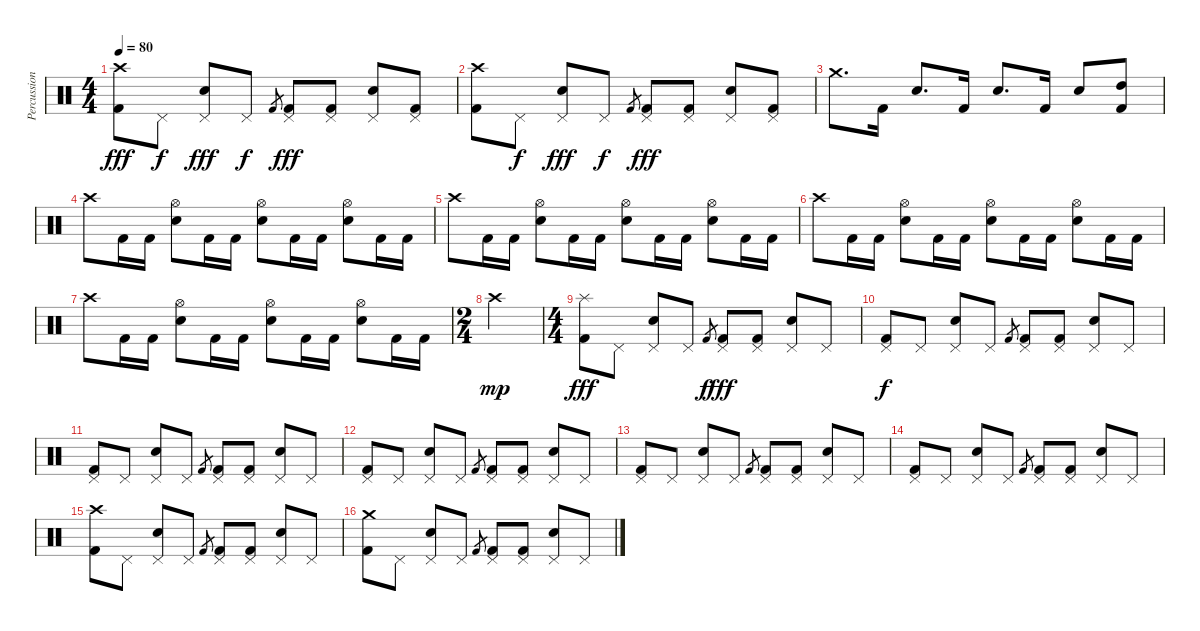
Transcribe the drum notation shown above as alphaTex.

\track ("Percussion" "Percussion") {instrument percussion}
\staff {score}
\articulation defaults
\ts (4 4)
\tempo 80
\clef neutral
\ks c
("Crash high (hit)" "Kick (hit) 2").8{dy fff} "Pedal Hi-Hat (hit)".8{dy f} ("Pedal Hi-Hat (hit)" "Electric Snare (hit)").8{dy fff} "Pedal Hi-Hat (hit)".8{dy f} "Kick (hit) 2".8{gr} ("Pedal Hi-Hat (hit)" "Kick (hit) 2").8{dy fff} ("Pedal Hi-Hat (hit)" "Kick (hit) 2").8 ("Pedal Hi-Hat (hit)" "Electric Snare (hit)").8 ("Pedal Hi-Hat (hit)" "Kick (hit) 2").8 |
("Crash high (hit)" "Kick (hit) 2").8 "Pedal Hi-Hat (hit)".8{dy f} ("Pedal Hi-Hat (hit)" "Electric Snare (hit)").8{dy fff} "Pedal Hi-Hat (hit)".8{dy f} "Kick (hit) 2".8{gr} ("Pedal Hi-Hat (hit)" "Kick (hit) 2").8{dy fff} ("Pedal Hi-Hat (hit)" "Kick (hit) 2").8 ("Pedal Hi-Hat (hit)" "Electric Snare (hit)").8 ("Pedal Hi-Hat (hit)" "Kick (hit) 2").8 |
"Crash medium (hit)".8{d} "Kick (hit) 2".16 "Electric Snare (hit)".8{d} "Kick (hit) 2".16 "Electric Snare (hit)".8{d} "Kick (hit) 2".16 "Electric Snare (hit)".8 ("High Tom (hit)" "Kick (hit) 2").8 |
"Crash high (hit)".8 "Kick (hit) 2".16 "Kick (hit) 2".16 ("Hi-Hat (open)" "Electric Snare (hit)").8 "Kick (hit) 2".16 "Kick (hit) 2".16 ("Hi-Hat (open)" "Electric Snare (hit)").8 "Kick (hit) 2".16 "Kick (hit) 2".16 ("Hi-Hat (open)" "Electric Snare (hit)").8 "Kick (hit) 2".16 "Kick (hit) 2".16 |
"Crash high (hit)".8 "Kick (hit) 2".16 "Kick (hit) 2".16 ("Hi-Hat (open)" "Electric Snare (hit)").8 "Kick (hit) 2".16 "Kick (hit) 2".16 ("Hi-Hat (open)" "Electric Snare (hit)").8 "Kick (hit) 2".16 "Kick (hit) 2".16 ("Hi-Hat (open)" "Electric Snare (hit)").8 "Kick (hit) 2".16 "Kick (hit) 2".16 |
"Crash high (hit)".8 "Kick (hit) 2".16 "Kick (hit) 2".16 ("Hi-Hat (open)" "Electric Snare (hit)").8 "Kick (hit) 2".16 "Kick (hit) 2".16 ("Hi-Hat (open)" "Electric Snare (hit)").8 "Kick (hit) 2".16 "Kick (hit) 2".16 ("Hi-Hat (open)" "Electric Snare (hit)").8 "Kick (hit) 2".16 "Kick (hit) 2".16 |
"Crash high (hit)".8 "Kick (hit) 2".16 "Kick (hit) 2".16 ("Hi-Hat (open)" "Electric Snare (hit)").8 "Kick (hit) 2".16 "Kick (hit) 2".16 ("Hi-Hat (open)" "Electric Snare (hit)").8 "Kick (hit) 2".16 "Kick (hit) 2".16 ("Hi-Hat (open)" "Electric Snare (hit)").8 "Kick (hit) 2".16 "Kick (hit) 2".16 |
\ts (2 4)
"Crash high (hit)".2{dy mp} |
\ts (4 4)
("Splash (hit)" "Kick (hit) 2").8{dy fff} "Pedal Hi-Hat (hit)".8 ("Pedal Hi-Hat (hit)" "Electric Snare (hit)").8 "Pedal Hi-Hat (hit)".8 "Kick (hit) 2".8{gr dy f} ("Pedal Hi-Hat (hit)" "Kick (hit) 2").8{dy fff} ("Pedal Hi-Hat (hit)" "Kick (hit) 2").8 ("Pedal Hi-Hat (hit)" "Electric Snare (hit)").8 "Pedal Hi-Hat (hit)".8 |
("Pedal Hi-Hat (hit)" "Kick (hit) 2").8{dy f} "Pedal Hi-Hat (hit)".8 ("Pedal Hi-Hat (hit)" "Electric Snare (hit)").8 "Pedal Hi-Hat (hit)".8 "Kick (hit) 2".8{gr} ("Pedal Hi-Hat (hit)" "Kick (hit) 2").8 ("Pedal Hi-Hat (hit)" "Kick (hit) 2").8 ("Pedal Hi-Hat (hit)" "Electric Snare (hit)").8 "Pedal Hi-Hat (hit)".8 |
("Pedal Hi-Hat (hit)" "Kick (hit) 2").8 "Pedal Hi-Hat (hit)".8 ("Pedal Hi-Hat (hit)" "Electric Snare (hit)").8 "Pedal Hi-Hat (hit)".8 "Kick (hit) 2".8{gr} ("Pedal Hi-Hat (hit)" "Kick (hit) 2").8 ("Pedal Hi-Hat (hit)" "Kick (hit) 2").8 ("Pedal Hi-Hat (hit)" "Electric Snare (hit)").8 "Pedal Hi-Hat (hit)".8 |
("Pedal Hi-Hat (hit)" "Kick (hit) 2").8 "Pedal Hi-Hat (hit)".8 ("Pedal Hi-Hat (hit)" "Electric Snare (hit)").8 "Pedal Hi-Hat (hit)".8 "Kick (hit) 2".8{gr} ("Pedal Hi-Hat (hit)" "Kick (hit) 2").8 ("Pedal Hi-Hat (hit)" "Kick (hit) 2").8 ("Pedal Hi-Hat (hit)" "Electric Snare (hit)").8 "Pedal Hi-Hat (hit)".8 |
("Pedal Hi-Hat (hit)" "Kick (hit) 2").8 "Pedal Hi-Hat (hit)".8 ("Pedal Hi-Hat (hit)" "Electric Snare (hit)").8 "Pedal Hi-Hat (hit)".8 "Kick (hit) 2".8{gr} ("Pedal Hi-Hat (hit)" "Kick (hit) 2").8 ("Pedal Hi-Hat (hit)" "Kick (hit) 2").8 ("Pedal Hi-Hat (hit)" "Electric Snare (hit)").8 "Pedal Hi-Hat (hit)".8 |
("Pedal Hi-Hat (hit)" "Kick (hit) 2").8 "Pedal Hi-Hat (hit)".8 ("Pedal Hi-Hat (hit)" "Electric Snare (hit)").8 "Pedal Hi-Hat (hit)".8 "Kick (hit) 2".8{gr} ("Pedal Hi-Hat (hit)" "Kick (hit) 2").8 ("Pedal Hi-Hat (hit)" "Kick (hit) 2").8 ("Pedal Hi-Hat (hit)" "Electric Snare (hit)").8 "Pedal Hi-Hat (hit)".8 |
("Crash high (hit)" "Kick (hit) 2").8 "Pedal Hi-Hat (hit)".8 ("Pedal Hi-Hat (hit)" "Electric Snare (hit)").8 "Pedal Hi-Hat (hit)".8 "Kick (hit) 2".8{gr} ("Pedal Hi-Hat (hit)" "Kick (hit) 2").8 ("Pedal Hi-Hat (hit)" "Kick (hit) 2").8 ("Pedal Hi-Hat (hit)" "Electric Snare (hit)").8 "Pedal Hi-Hat (hit)".8 |
("Crash medium (hit)" "Kick (hit) 2").8 "Pedal Hi-Hat (hit)".8 ("Pedal Hi-Hat (hit)" "Electric Snare (hit)").8 "Pedal Hi-Hat (hit)".8 "Kick (hit) 2".8{gr} ("Pedal Hi-Hat (hit)" "Kick (hit) 2").8 ("Pedal Hi-Hat (hit)" "Kick (hit) 2").8 ("Pedal Hi-Hat (hit)" "Electric Snare (hit)").8 "Pedal Hi-Hat (hit)".8
